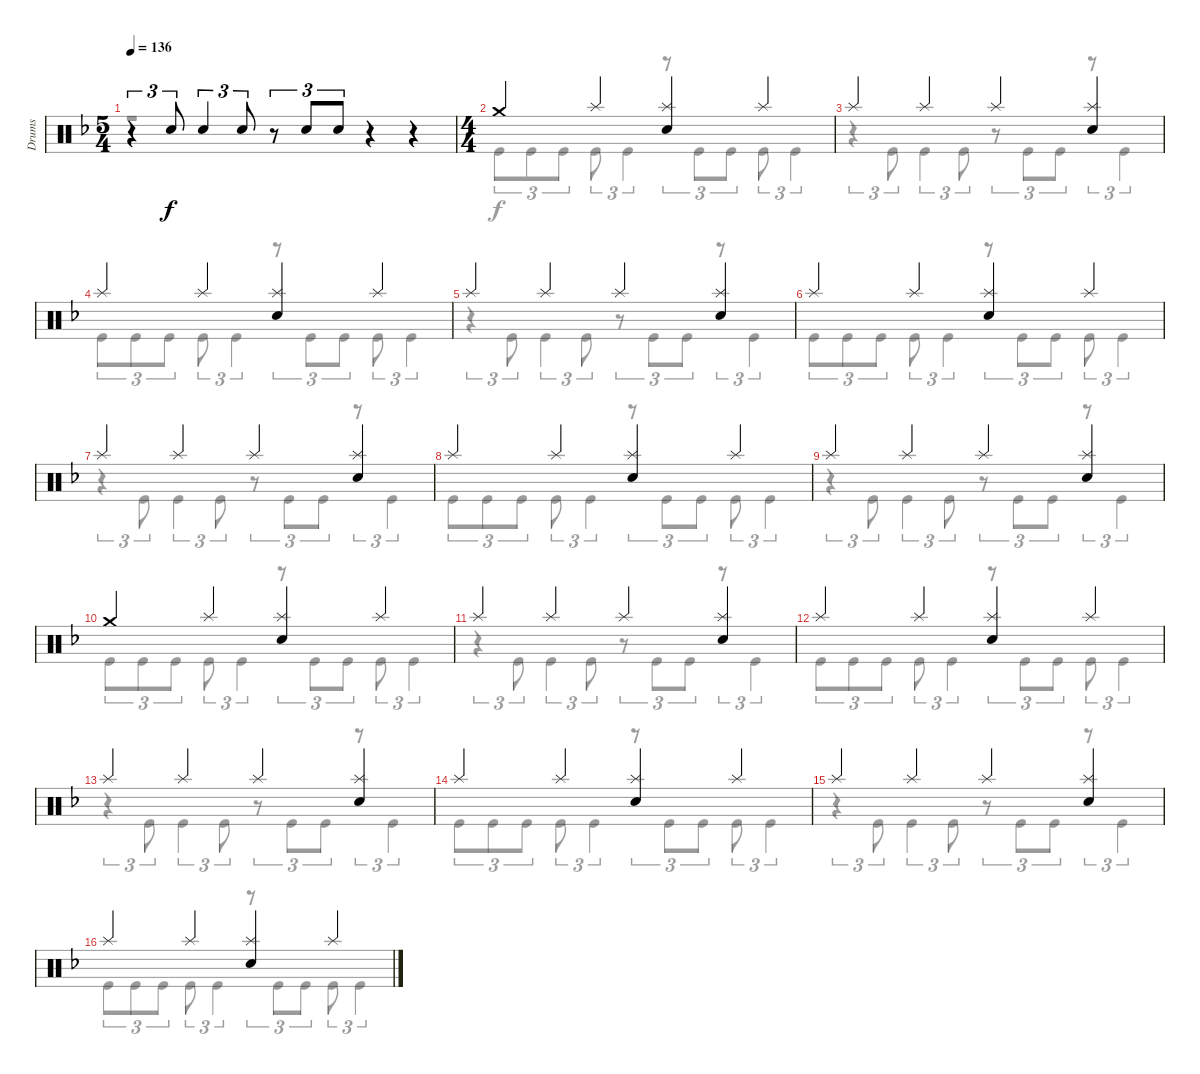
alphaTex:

\track ("Drums" "Drums") {instrument percussion}
\staff {score}
\articulation defaults
\voice
\ts (5 4)
\tempo 136
\clef neutral
\ks dminor
r.4{tu (3 2) dy f} "Electric Snare (hit)".8{tu (3 2)} "Electric Snare (hit)".4{tu (3 2)} "Electric Snare (hit)".8{tu (3 2)} r.8{tu (3 2)} "Electric Snare (hit)".8{tu (3 2)} "Electric Snare (hit)".8{tu (3 2)} r.4 r.4 |
\ts (4 4)
"Crash medium (hit)".4 "Splash (hit)".4 ("Splash (hit)" "Electric Snare (hit)").4 "Splash (hit)".4 |
"Splash (hit)".4 "Splash (hit)".4 "Splash (hit)".4 ("Splash (hit)" "Electric Snare (hit)").4 |
"Splash (hit)".4 "Splash (hit)".4 ("Splash (hit)" "Electric Snare (hit)").4 "Splash (hit)".4 |
"Splash (hit)".4 "Splash (hit)".4 "Splash (hit)".4 ("Splash (hit)" "Electric Snare (hit)").4 |
"Splash (hit)".4 "Splash (hit)".4 ("Splash (hit)" "Electric Snare (hit)").4 "Splash (hit)".4 |
"Splash (hit)".4 "Splash (hit)".4 "Splash (hit)".4 ("Splash (hit)" "Electric Snare (hit)").4 |
"Splash (hit)".4 "Splash (hit)".4 ("Splash (hit)" "Electric Snare (hit)").4 "Splash (hit)".4 |
"Splash (hit)".4 "Splash (hit)".4 "Splash (hit)".4 ("Splash (hit)" "Electric Snare (hit)").4 |
"Crash medium (hit)".4 "Splash (hit)".4 ("Splash (hit)" "Electric Snare (hit)").4 "Splash (hit)".4 |
"Splash (hit)".4 "Splash (hit)".4 "Splash (hit)".4 ("Splash (hit)" "Electric Snare (hit)").4 |
"Splash (hit)".4 "Splash (hit)".4 ("Splash (hit)" "Electric Snare (hit)").4 "Splash (hit)".4 |
"Splash (hit)".4 "Splash (hit)".4 "Splash (hit)".4 ("Splash (hit)" "Electric Snare (hit)").4 |
"Splash (hit)".4 "Splash (hit)".4 ("Splash (hit)" "Electric Snare (hit)").4 "Splash (hit)".4 |
"Splash (hit)".4 "Splash (hit)".4 "Splash (hit)".4 ("Splash (hit)" "Electric Snare (hit)").4 |
"Splash (hit)".4 "Splash (hit)".4 ("Splash (hit)" "Electric Snare (hit)").4 "Splash (hit)".4
\voice
\clef neutral
\ottava regular
\simile none
\ks dminor
r.1{dy f} r.4 |
"Kick (hit)".8{tu (3 2)} "Kick (hit)".8{tu (3 2)} "Kick (hit)".8{tu (3 2)} "Kick (hit)".8{tu (3 2)} "Kick (hit)".4{tu (3 2)} r.8{tu (3 2)} "Kick (hit)".8{tu (3 2)} "Kick (hit)".8{tu (3 2)} "Kick (hit)".8{tu (3 2)} "Kick (hit)".4{tu (3 2)} |
r.4{tu (3 2)} "Kick (hit)".8{tu (3 2)} "Kick (hit)".4{tu (3 2)} "Kick (hit)".8{tu (3 2)} r.8{tu (3 2)} "Kick (hit)".8{tu (3 2)} "Kick (hit)".8{tu (3 2)} r.8{tu (3 2)} "Kick (hit)".4{tu (3 2)} |
"Kick (hit)".8{tu (3 2)} "Kick (hit)".8{tu (3 2)} "Kick (hit)".8{tu (3 2)} "Kick (hit)".8{tu (3 2)} "Kick (hit)".4{tu (3 2)} r.8{tu (3 2)} "Kick (hit)".8{tu (3 2)} "Kick (hit)".8{tu (3 2)} "Kick (hit)".8{tu (3 2)} "Kick (hit)".4{tu (3 2)} |
r.4{tu (3 2)} "Kick (hit)".8{tu (3 2)} "Kick (hit)".4{tu (3 2)} "Kick (hit)".8{tu (3 2)} r.8{tu (3 2)} "Kick (hit)".8{tu (3 2)} "Kick (hit)".8{tu (3 2)} r.8{tu (3 2)} "Kick (hit)".4{tu (3 2)} |
"Kick (hit)".8{tu (3 2)} "Kick (hit)".8{tu (3 2)} "Kick (hit)".8{tu (3 2)} "Kick (hit)".8{tu (3 2)} "Kick (hit)".4{tu (3 2)} r.8{tu (3 2)} "Kick (hit)".8{tu (3 2)} "Kick (hit)".8{tu (3 2)} "Kick (hit)".8{tu (3 2)} "Kick (hit)".4{tu (3 2)} |
r.4{tu (3 2)} "Kick (hit)".8{tu (3 2)} "Kick (hit)".4{tu (3 2)} "Kick (hit)".8{tu (3 2)} r.8{tu (3 2)} "Kick (hit)".8{tu (3 2)} "Kick (hit)".8{tu (3 2)} r.8{tu (3 2)} "Kick (hit)".4{tu (3 2)} |
"Kick (hit)".8{tu (3 2)} "Kick (hit)".8{tu (3 2)} "Kick (hit)".8{tu (3 2)} "Kick (hit)".8{tu (3 2)} "Kick (hit)".4{tu (3 2)} r.8{tu (3 2)} "Kick (hit)".8{tu (3 2)} "Kick (hit)".8{tu (3 2)} "Kick (hit)".8{tu (3 2)} "Kick (hit)".4{tu (3 2)} |
r.4{tu (3 2)} "Kick (hit)".8{tu (3 2)} "Kick (hit)".4{tu (3 2)} "Kick (hit)".8{tu (3 2)} r.8{tu (3 2)} "Kick (hit)".8{tu (3 2)} "Kick (hit)".8{tu (3 2)} r.8{tu (3 2)} "Kick (hit)".4{tu (3 2)} |
"Kick (hit)".8{tu (3 2)} "Kick (hit)".8{tu (3 2)} "Kick (hit)".8{tu (3 2)} "Kick (hit)".8{tu (3 2)} "Kick (hit)".4{tu (3 2)} r.8{tu (3 2)} "Kick (hit)".8{tu (3 2)} "Kick (hit)".8{tu (3 2)} "Kick (hit)".8{tu (3 2)} "Kick (hit)".4{tu (3 2)} |
r.4{tu (3 2)} "Kick (hit)".8{tu (3 2)} "Kick (hit)".4{tu (3 2)} "Kick (hit)".8{tu (3 2)} r.8{tu (3 2)} "Kick (hit)".8{tu (3 2)} "Kick (hit)".8{tu (3 2)} r.8{tu (3 2)} "Kick (hit)".4{tu (3 2)} |
"Kick (hit)".8{tu (3 2)} "Kick (hit)".8{tu (3 2)} "Kick (hit)".8{tu (3 2)} "Kick (hit)".8{tu (3 2)} "Kick (hit)".4{tu (3 2)} r.8{tu (3 2)} "Kick (hit)".8{tu (3 2)} "Kick (hit)".8{tu (3 2)} "Kick (hit)".8{tu (3 2)} "Kick (hit)".4{tu (3 2)} |
r.4{tu (3 2)} "Kick (hit)".8{tu (3 2)} "Kick (hit)".4{tu (3 2)} "Kick (hit)".8{tu (3 2)} r.8{tu (3 2)} "Kick (hit)".8{tu (3 2)} "Kick (hit)".8{tu (3 2)} r.8{tu (3 2)} "Kick (hit)".4{tu (3 2)} |
"Kick (hit)".8{tu (3 2)} "Kick (hit)".8{tu (3 2)} "Kick (hit)".8{tu (3 2)} "Kick (hit)".8{tu (3 2)} "Kick (hit)".4{tu (3 2)} r.8{tu (3 2)} "Kick (hit)".8{tu (3 2)} "Kick (hit)".8{tu (3 2)} "Kick (hit)".8{tu (3 2)} "Kick (hit)".4{tu (3 2)} |
r.4{tu (3 2)} "Kick (hit)".8{tu (3 2)} "Kick (hit)".4{tu (3 2)} "Kick (hit)".8{tu (3 2)} r.8{tu (3 2)} "Kick (hit)".8{tu (3 2)} "Kick (hit)".8{tu (3 2)} r.8{tu (3 2)} "Kick (hit)".4{tu (3 2)} |
"Kick (hit)".8{tu (3 2)} "Kick (hit)".8{tu (3 2)} "Kick (hit)".8{tu (3 2)} "Kick (hit)".8{tu (3 2)} "Kick (hit)".4{tu (3 2)} r.8{tu (3 2)} "Kick (hit)".8{tu (3 2)} "Kick (hit)".8{tu (3 2)} "Kick (hit)".8{tu (3 2)} "Kick (hit)".4{tu (3 2)}
